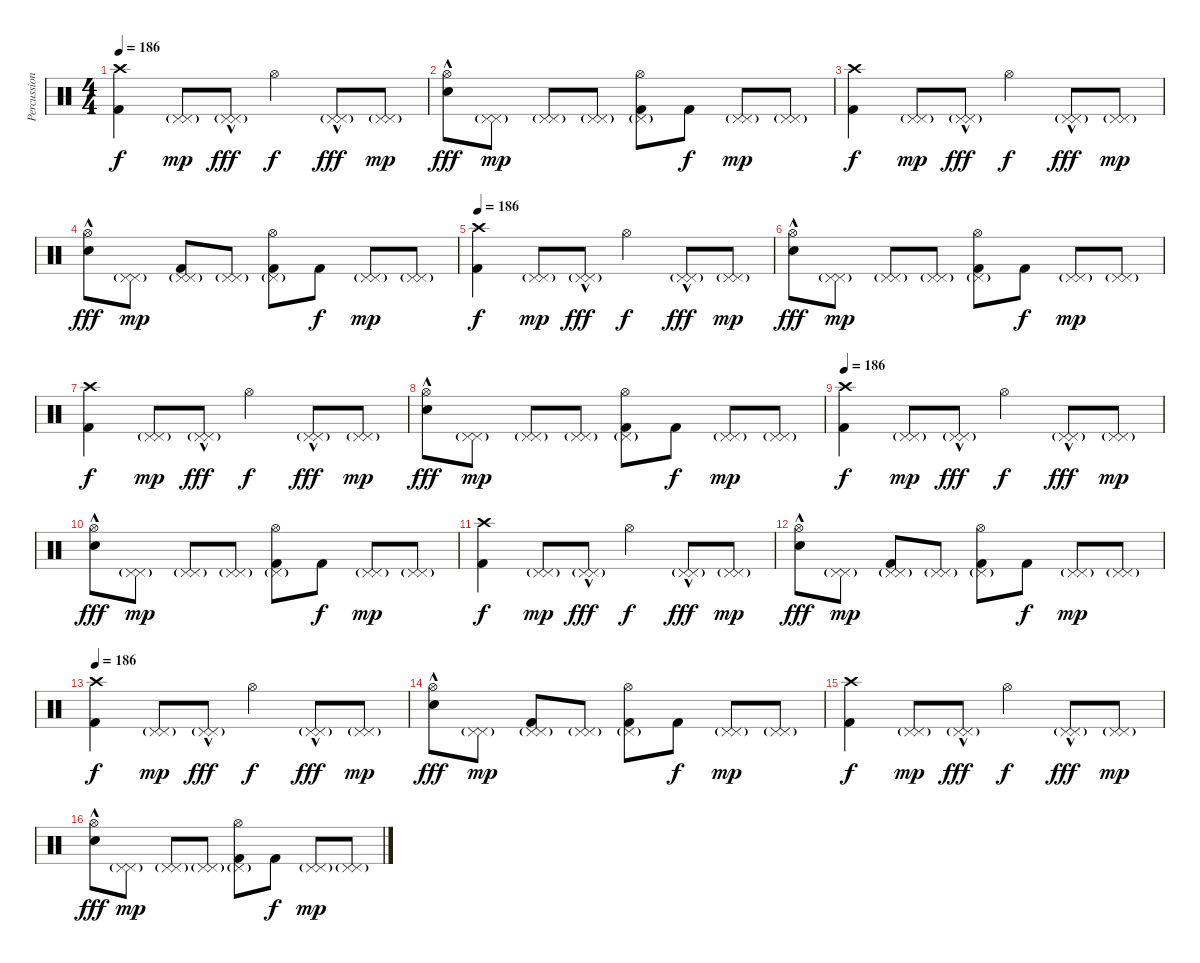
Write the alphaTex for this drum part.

\track ("Percussion" "Percussion") {instrument percussion}
\staff {score}
\articulation defaults
\ts (4 4)
\tempo 186
\clef neutral
\ks c
("Crash high (hit)" "Kick (hit) 2").4{dy f} ("Pedal Hi-Hat (hit)"{g} "Pedal Hi-Hat (hit)").8{dy mp} ("Pedal Hi-Hat (hit)"{g} "Pedal Hi-Hat (hit)"{hac}).8{dy fff} "Hi-Hat (open)".4{dy f} ("Pedal Hi-Hat (hit)"{g} "Pedal Hi-Hat (hit)"{hac}).8{dy fff} ("Pedal Hi-Hat (hit)"{g} "Pedal Hi-Hat (hit)").8{dy mp} |
("Hi-Hat (open)" "Electric Snare (hit)"{hac}).8{dy fff} ("Pedal Hi-Hat (hit)"{g} "Pedal Hi-Hat (hit)").8{dy mp} ("Pedal Hi-Hat (hit)"{g} "Pedal Hi-Hat (hit)").8 ("Pedal Hi-Hat (hit)"{g} "Pedal Hi-Hat (hit)").8 ("Pedal Hi-Hat (hit)"{g} "Hi-Hat (open)" "Kick (hit) 2").8 "Kick (hit) 2".8{dy f} ("Pedal Hi-Hat (hit)"{g} "Pedal Hi-Hat (hit)").8{dy mp} ("Pedal Hi-Hat (hit)"{g} "Pedal Hi-Hat (hit)").8 |
("Crash high (hit)" "Kick (hit) 2").4{dy f} ("Pedal Hi-Hat (hit)"{g} "Pedal Hi-Hat (hit)").8{dy mp} ("Pedal Hi-Hat (hit)"{g} "Pedal Hi-Hat (hit)"{hac}).8{dy fff} "Hi-Hat (open)".4{dy f} ("Pedal Hi-Hat (hit)"{g} "Pedal Hi-Hat (hit)"{hac}).8{dy fff} ("Pedal Hi-Hat (hit)"{g} "Pedal Hi-Hat (hit)").8{dy mp} |
("Hi-Hat (open)" "Electric Snare (hit)"{hac}).8{dy fff} ("Pedal Hi-Hat (hit)"{g} "Pedal Hi-Hat (hit)").8{dy mp} ("Pedal Hi-Hat (hit)"{g} "Pedal Hi-Hat (hit)" "Kick (hit) 2").8 ("Pedal Hi-Hat (hit)"{g} "Pedal Hi-Hat (hit)").8 ("Pedal Hi-Hat (hit)"{g} "Hi-Hat (open)" "Kick (hit) 2").8 "Kick (hit) 2".8{dy f} ("Pedal Hi-Hat (hit)"{g} "Pedal Hi-Hat (hit)").8{dy mp} ("Pedal Hi-Hat (hit)"{g} "Pedal Hi-Hat (hit)").8 |
\tempo 186
("Crash high (hit)" "Kick (hit) 2").4{dy f} ("Pedal Hi-Hat (hit)"{g} "Pedal Hi-Hat (hit)").8{dy mp} ("Pedal Hi-Hat (hit)"{g} "Pedal Hi-Hat (hit)"{hac}).8{dy fff} "Hi-Hat (open)".4{dy f} ("Pedal Hi-Hat (hit)"{g} "Pedal Hi-Hat (hit)"{hac}).8{dy fff} ("Pedal Hi-Hat (hit)"{g} "Pedal Hi-Hat (hit)").8{dy mp} |
("Hi-Hat (open)" "Electric Snare (hit)"{hac}).8{dy fff} ("Pedal Hi-Hat (hit)"{g} "Pedal Hi-Hat (hit)").8{dy mp} ("Pedal Hi-Hat (hit)"{g} "Pedal Hi-Hat (hit)").8 ("Pedal Hi-Hat (hit)"{g} "Pedal Hi-Hat (hit)").8 ("Pedal Hi-Hat (hit)"{g} "Hi-Hat (open)" "Kick (hit) 2").8 "Kick (hit) 2".8{dy f} ("Pedal Hi-Hat (hit)"{g} "Pedal Hi-Hat (hit)").8{dy mp} ("Pedal Hi-Hat (hit)"{g} "Pedal Hi-Hat (hit)").8 |
("Crash high (hit)" "Kick (hit) 2").4{dy f} ("Pedal Hi-Hat (hit)"{g} "Pedal Hi-Hat (hit)").8{dy mp} ("Pedal Hi-Hat (hit)"{g} "Pedal Hi-Hat (hit)"{hac}).8{dy fff} "Hi-Hat (open)".4{dy f} ("Pedal Hi-Hat (hit)"{g} "Pedal Hi-Hat (hit)"{hac}).8{dy fff} ("Pedal Hi-Hat (hit)"{g} "Pedal Hi-Hat (hit)").8{dy mp} |
("Hi-Hat (open)" "Electric Snare (hit)"{hac}).8{dy fff} ("Pedal Hi-Hat (hit)"{g} "Pedal Hi-Hat (hit)").8{dy mp} ("Pedal Hi-Hat (hit)"{g} "Pedal Hi-Hat (hit)").8 ("Pedal Hi-Hat (hit)"{g} "Pedal Hi-Hat (hit)").8 ("Pedal Hi-Hat (hit)"{g} "Hi-Hat (open)" "Kick (hit) 2").8 "Kick (hit) 2".8{dy f} ("Pedal Hi-Hat (hit)"{g} "Pedal Hi-Hat (hit)").8{dy mp} ("Pedal Hi-Hat (hit)"{g} "Pedal Hi-Hat (hit)").8 |
\tempo 186
("Crash high (hit)" "Kick (hit) 2").4{dy f} ("Pedal Hi-Hat (hit)"{g} "Pedal Hi-Hat (hit)").8{dy mp} ("Pedal Hi-Hat (hit)"{g} "Pedal Hi-Hat (hit)"{hac}).8{dy fff} "Hi-Hat (open)".4{dy f} ("Pedal Hi-Hat (hit)"{g} "Pedal Hi-Hat (hit)"{hac}).8{dy fff} ("Pedal Hi-Hat (hit)"{g} "Pedal Hi-Hat (hit)").8{dy mp} |
("Hi-Hat (open)" "Electric Snare (hit)"{hac}).8{dy fff} ("Pedal Hi-Hat (hit)"{g} "Pedal Hi-Hat (hit)").8{dy mp} ("Pedal Hi-Hat (hit)"{g} "Pedal Hi-Hat (hit)").8 ("Pedal Hi-Hat (hit)"{g} "Pedal Hi-Hat (hit)").8 ("Pedal Hi-Hat (hit)"{g} "Hi-Hat (open)" "Kick (hit) 2").8 "Kick (hit) 2".8{dy f} ("Pedal Hi-Hat (hit)"{g} "Pedal Hi-Hat (hit)").8{dy mp} ("Pedal Hi-Hat (hit)"{g} "Pedal Hi-Hat (hit)").8 |
("Crash high (hit)" "Kick (hit) 2").4{dy f} ("Pedal Hi-Hat (hit)"{g} "Pedal Hi-Hat (hit)").8{dy mp} ("Pedal Hi-Hat (hit)"{g} "Pedal Hi-Hat (hit)"{hac}).8{dy fff} "Hi-Hat (open)".4{dy f} ("Pedal Hi-Hat (hit)"{g} "Pedal Hi-Hat (hit)"{hac}).8{dy fff} ("Pedal Hi-Hat (hit)"{g} "Pedal Hi-Hat (hit)").8{dy mp} |
("Hi-Hat (open)" "Electric Snare (hit)"{hac}).8{dy fff} ("Pedal Hi-Hat (hit)"{g} "Pedal Hi-Hat (hit)").8{dy mp} ("Pedal Hi-Hat (hit)"{g} "Pedal Hi-Hat (hit)" "Kick (hit) 2").8 ("Pedal Hi-Hat (hit)"{g} "Pedal Hi-Hat (hit)").8 ("Pedal Hi-Hat (hit)"{g} "Hi-Hat (open)" "Kick (hit) 2").8 "Kick (hit) 2".8{dy f} ("Pedal Hi-Hat (hit)"{g} "Pedal Hi-Hat (hit)").8{dy mp} ("Pedal Hi-Hat (hit)"{g} "Pedal Hi-Hat (hit)").8 |
\tempo 186
("Crash high (hit)" "Kick (hit) 2").4{dy f} ("Pedal Hi-Hat (hit)"{g} "Pedal Hi-Hat (hit)").8{dy mp} ("Pedal Hi-Hat (hit)"{g} "Pedal Hi-Hat (hit)"{hac}).8{dy fff} "Hi-Hat (open)".4{dy f} ("Pedal Hi-Hat (hit)"{g} "Pedal Hi-Hat (hit)"{hac}).8{dy fff} ("Pedal Hi-Hat (hit)"{g} "Pedal Hi-Hat (hit)").8{dy mp} |
("Hi-Hat (open)" "Electric Snare (hit)"{hac}).8{dy fff} ("Pedal Hi-Hat (hit)"{g} "Pedal Hi-Hat (hit)").8{dy mp} ("Pedal Hi-Hat (hit)"{g} "Pedal Hi-Hat (hit)" "Kick (hit) 2").8 ("Pedal Hi-Hat (hit)"{g} "Pedal Hi-Hat (hit)").8 ("Pedal Hi-Hat (hit)"{g} "Hi-Hat (open)" "Kick (hit) 2").8 "Kick (hit) 2".8{dy f} ("Pedal Hi-Hat (hit)"{g} "Pedal Hi-Hat (hit)").8{dy mp} ("Pedal Hi-Hat (hit)"{g} "Pedal Hi-Hat (hit)").8 |
("Crash high (hit)" "Kick (hit) 2").4{dy f} ("Pedal Hi-Hat (hit)"{g} "Pedal Hi-Hat (hit)").8{dy mp} ("Pedal Hi-Hat (hit)"{g} "Pedal Hi-Hat (hit)"{hac}).8{dy fff} "Hi-Hat (open)".4{dy f} ("Pedal Hi-Hat (hit)"{g} "Pedal Hi-Hat (hit)"{hac}).8{dy fff} ("Pedal Hi-Hat (hit)"{g} "Pedal Hi-Hat (hit)").8{dy mp} |
("Hi-Hat (open)" "Electric Snare (hit)"{hac}).8{dy fff} ("Pedal Hi-Hat (hit)"{g} "Pedal Hi-Hat (hit)").8{dy mp} ("Pedal Hi-Hat (hit)"{g} "Pedal Hi-Hat (hit)").8 ("Pedal Hi-Hat (hit)"{g} "Pedal Hi-Hat (hit)").8 ("Pedal Hi-Hat (hit)"{g} "Hi-Hat (open)" "Kick (hit) 2").8 "Kick (hit) 2".8{dy f} ("Pedal Hi-Hat (hit)"{g} "Pedal Hi-Hat (hit)").8{dy mp} ("Pedal Hi-Hat (hit)"{g} "Pedal Hi-Hat (hit)").8
